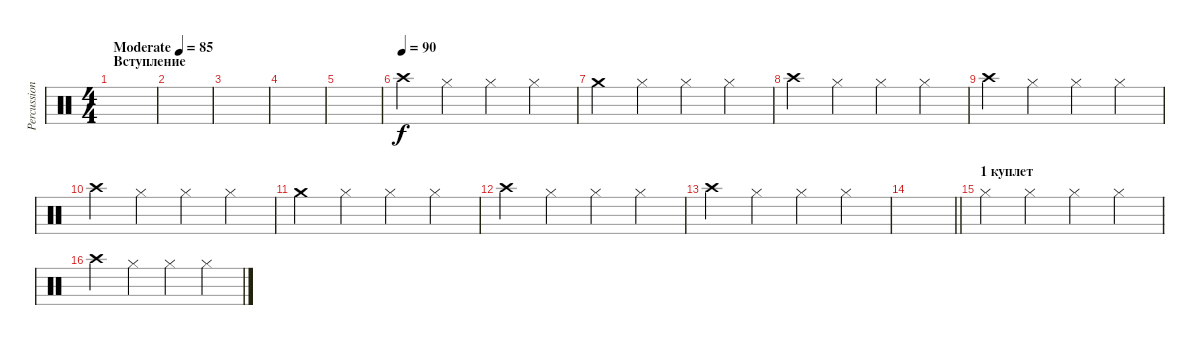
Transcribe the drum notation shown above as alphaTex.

\track ("Percussion" "Percussion") {instrument percussion}
\staff {score}
\articulation defaults
\ts (4 4)
\section ("" "Вступление")
\tempo (85 "Moderate")
\clef neutral
\ks c
|
|
|
|
|
\tempo (90)
"Crash high (hit)".4 "Hi-Hat (closed)".4 "Hi-Hat (closed)".4 "Hi-Hat (closed)".4 |
"Crash medium (hit)".4 "Hi-Hat (closed)".4 "Hi-Hat (closed)".4 "Hi-Hat (closed)".4 |
"Crash high (hit)".4 "Hi-Hat (closed)".4 "Hi-Hat (closed)".4 "Hi-Hat (closed)".4 |
"Crash high (hit)".4 "Hi-Hat (closed)".4 "Hi-Hat (closed)".4 "Hi-Hat (closed)".4 |
"Crash high (hit)".4 "Hi-Hat (closed)".4 "Hi-Hat (closed)".4 "Hi-Hat (closed)".4 |
"Crash medium (hit)".4 "Hi-Hat (closed)".4 "Hi-Hat (closed)".4 "Hi-Hat (closed)".4 |
"Crash high (hit)".4 "Hi-Hat (closed)".4 "Hi-Hat (closed)".4 "Hi-Hat (closed)".4 |
"Crash high (hit)".4 "Hi-Hat (closed)".4 "Hi-Hat (closed)".4 "Hi-Hat (closed)".4 |
\barLineRight lightlight
|
\section ("" "1 куплет")
"Hi-Hat (closed)".4 "Hi-Hat (closed)".4 "Hi-Hat (closed)".4 "Hi-Hat (closed)".4 |
"Crash high (hit)".4 "Hi-Hat (closed)".4 "Hi-Hat (closed)".4 "Hi-Hat (closed)".4
